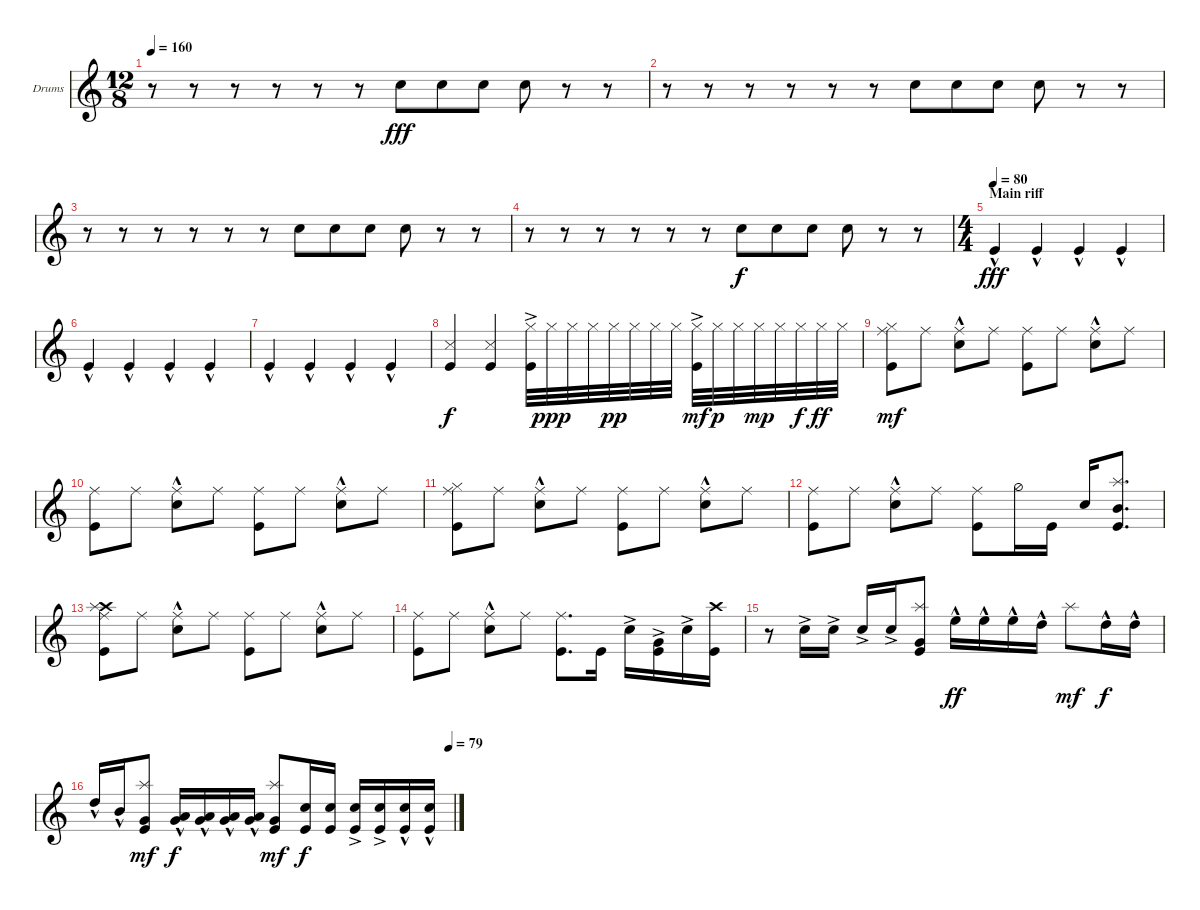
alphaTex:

\defaultSystemsLayout 4
\bracketExtendMode groupsimilarinstruments
\firstSystemTrackNameOrientation horizontal
\otherSystemsTrackNameOrientation horizontal
\track ("Dom" "Drums") {instrument percussion}
\staff {score}
\articulation defaults
\ts (12 8)
\tempo 160
\clef g2
\ks c
r.8{dy fff} r.8 r.8 r.8 r.8 r.8 "Snare (hit) 2".8 "Snare (hit) 2".8 "Snare (hit) 2".8 "Snare (hit) 2".8 r.8 r.8 |
r.8 r.8 r.8 r.8 r.8 r.8 "Snare (hit) 2".8 "Snare (hit) 2".8 "Snare (hit) 2".8 "Snare (hit) 2".8 r.8 r.8 |
r.8 r.8 r.8 r.8 r.8 r.8 "Snare (hit) 2".8 "Snare (hit) 2".8 "Snare (hit) 2".8 "Snare (hit) 2".8 r.8 r.8 |
r.8 r.8 r.8 r.8 r.8 r.8 "Snare (hit) 2".8{dy f} "Snare (hit) 2".8 "Snare (hit) 2".8 "Snare (hit) 2".8 r.8 r.8 |
\ts (4 4)
\section ("" "Main riff")
\tempo (80)
"Kick (hit)"{hac}.4{dy fff} "Kick (hit)"{hac}.4 "Kick (hit)"{hac}.4 "Kick (hit)"{hac}.4 |
"Kick (hit)"{hac}.4 "Kick (hit)"{hac}.4 "Kick (hit)"{hac}.4 "Kick (hit)"{hac}.4 |
"Kick (hit)"{hac}.4 "Kick (hit)"{hac}.4 "Kick (hit)"{hac}.4 "Kick (hit)"{hac}.4 |
("Kick (hit)" "Snare (side stick) 3").4{dy f} ("Kick (hit)" "Snare (side stick) 3").4 ("Kick (hit)"{ac} "Hi-Hat (closed)").32 "Hi-Hat (closed)".32{dy ppp} "Hi-Hat (closed)".32 "Hi-Hat (closed)".32 "Hi-Hat (closed)".32{dy pp} "Hi-Hat (closed)".32 "Hi-Hat (closed)".32 "Hi-Hat (closed)".32 ("Kick (hit)"{ac} "Hi-Hat (closed)").32{dy mf} "Hi-Hat (closed)".32{dy p} "Hi-Hat (closed)".32 "Hi-Hat (closed)".32{dy mp} "Hi-Hat (closed)".32 "Hi-Hat (closed)".32{dy f} "Hi-Hat (closed)".32{dy ff} "Hi-Hat (closed)".32 |
("Ride (middle)" "Kick (hit)" "Hi-Hat (closed)").8{dy mf} "Ride (middle)".8 ("Ride (middle)" "Snare (hit) 2"{hac}).8 "Ride (middle)".8 ("Ride (middle)" "Kick (hit)").8 "Ride (middle)".8 ("Ride (middle)" "Snare (hit) 2"{hac}).8 "Ride (middle)".8 |
("Ride (middle)" "Kick (hit)").8 "Ride (middle)".8 ("Ride (middle)" "Snare (hit) 2"{hac}).8 "Ride (middle)".8 ("Ride (middle)" "Kick (hit)").8 "Ride (middle)".8 ("Ride (middle)" "Snare (hit) 2"{hac}).8 "Ride (middle)".8 |
("Ride (middle)" "Kick (hit)" "Hi-Hat (closed)").8 "Ride (middle)".8 ("Ride (middle)" "Snare (hit) 2"{hac}).8 "Ride (middle)".8 ("Ride (middle)" "Kick (hit)").8 "Ride (middle)".8 ("Ride (middle)" "Snare (hit) 2"{hac}).8 "Ride (middle)".8 |
("Ride (middle)" "Kick (hit)").8 "Ride (middle)".8 ("Ride (middle)" "Snare (hit) 2"{hac}).8 "Ride (middle)".8 ("Ride (middle)" "Kick (hit)").8 "Hi-Hat (half)".16 "Kick (hit)".16 "Snare (hit) 2".16 ("Kick (hit)" "Splash (hit)" "Mid Tom (hit)").8{d} |
("Ride (middle)" "Kick (hit)" "Crash high (hit)" "Splash (hit)").8 "Ride (middle)".8 ("Ride (middle)" "Snare (hit) 2"{hac}).8 "Ride (middle)".8 ("Ride (middle)" "Kick (hit)").8 "Ride (middle)".8 ("Ride (middle)" "Snare (hit) 2"{hac}).8 "Ride (middle)".8 |
("Ride (middle)" "Kick (hit)").8 "Ride (middle)".8 ("Ride (middle)" "Snare (hit) 2"{hac}).8 "Ride (middle)".8 ("Ride (middle)" "Kick (hit)").8{d} "Kick (hit)".16 "Snare (hit) 2"{ac}.16 ("Kick (hit)"{ac} "Very Low Tom (hit)"{ac}).16 "Snare (hit) 2"{ac}.16 ("Crash high (hit)" "Kick (hit)").16 |
r.8 "Snare (hit) 2"{ac}.16 "Snare (hit) 2"{ac}.16 "Snare (hit) 2"{ac}.16 "Snare (hit) 2"{ac}.16 ("Kick (hit)" "Very Low Tom (hit)" "Splash (hit)").8 "High Floor Tom (hit)"{hac}.16{dy ff} "High Floor Tom (hit)"{hac}.16 "High Floor Tom (hit)"{hac}.16 "High Tom (hit)"{hac}.16 "Splash (hit)".8{dy mf} "High Tom (hit)"{hac}.16{dy f} "High Tom (hit)"{hac}.16 |
\tempo (79 0.9875)
"High Tom (hit)"{hac}.16 "Mid Tom (hit)"{hac}.16 ("Splash (hit)" "Kick (hit)" "Very Low Tom (hit)").8{dy mf} ("Low Tom (hit)"{hac} "Very Low Tom (hit)"{hac}).16{dy f} ("Low Tom (hit)"{hac} "Very Low Tom (hit)"{hac}).16 ("Low Tom (hit)"{hac} "Very Low Tom (hit)"{hac}).16 ("Low Tom (hit)"{hac} "Very Low Tom (hit)"{hac}).16 ("Splash (hit)" "Very Low Tom (hit)" "Kick (hit)").8{dy mf} ("Snare (hit) 2" "Kick (hit)").16{dy f} ("Snare (hit) 2" "Kick (hit)").16 ("Snare (hit) 2"{ac} "Kick (hit)").16 ("Snare (hit) 2"{ac} "Kick (hit)").16 ("Snare (hit) 2"{hac} "Kick (hit)").16 ("Snare (hit) 2"{hac} "Kick (hit)").16
